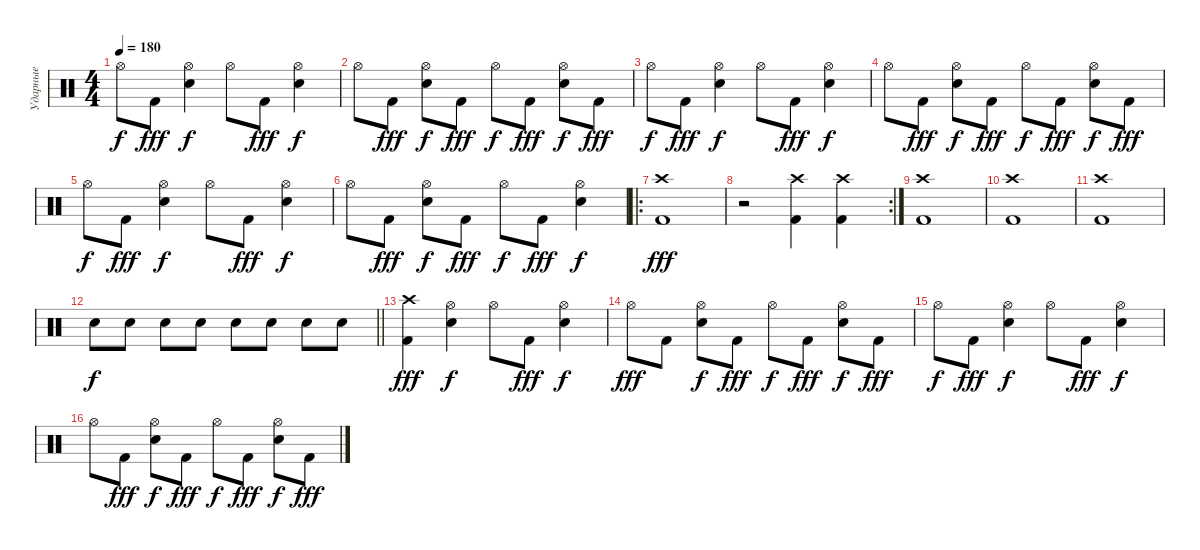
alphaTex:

\track ("Ударные" "Ударные") {instrument percussion}
\staff
\articulation defaults
\ts (4 4)
\tempo 180
\clef neutral
\ks c "Hi-Hat (open)".8{dy f} "Kick (hit) 2".8{dy fff}
("Snare (hit) 2" "Hi-Hat (open)").4{dy f} "Hi-Hat (open)".8 "Kick (hit) 2".8{dy fff} ("Snare (hit) 2" "Hi-Hat (open)").4{dy f} |
"Hi-Hat (open)".8 "Kick (hit) 2".8{dy fff} ("Snare (hit) 2" "Hi-Hat (open)").8{dy f} "Kick (hit) 2".8{dy fff} "Hi-Hat (open)".8{dy f} "Kick (hit) 2".8{dy fff} ("Snare (hit) 2" "Hi-Hat (open)").8{dy f} "Kick (hit) 2".8{dy fff} |
"Hi-Hat (open)".8{dy f} "Kick (hit) 2".8{dy fff} ("Snare (hit) 2" "Hi-Hat (open)").4{dy f} "Hi-Hat (open)".8 "Kick (hit) 2".8{dy fff} ("Snare (hit) 2" "Hi-Hat (open)").4{dy f} |
"Hi-Hat (open)".8 "Kick (hit) 2".8{dy fff} ("Snare (hit) 2" "Hi-Hat (open)").8{dy f} "Kick (hit) 2".8{dy fff} "Hi-Hat (open)".8{dy f} "Kick (hit) 2".8{dy fff} ("Snare (hit) 2" "Hi-Hat (open)").8{dy f} "Kick (hit) 2".8{dy fff} |
"Hi-Hat (open)".8{dy f} "Kick (hit) 2".8{dy fff} ("Snare (hit) 2" "Hi-Hat (open)").4{dy f} "Hi-Hat (open)".8 "Kick (hit) 2".8{dy fff} ("Snare (hit) 2" "Hi-Hat (open)").4{dy f} |
"Hi-Hat (open)".8 "Kick (hit) 2".8{dy fff} ("Snare (hit) 2" "Hi-Hat (open)").8{dy f} "Kick (hit) 2".8{dy fff} "Hi-Hat (open)".8{dy f} "Kick (hit) 2".8{dy fff} ("Snare (hit) 2" "Hi-Hat (open)").4{dy f} |
\ro
("Kick (hit) 2" "Crash high (hit)").1{dy fff} |
\rc 2
r.2 ("Kick (hit) 2" "Crash high (hit)").4 ("Kick (hit) 2" "Crash high (hit)").4 |
("Kick (hit) 2" "Crash high (hit)").1 |
("Kick (hit) 2" "Crash high (hit)").1 |
("Kick (hit) 2" "Crash high (hit)").1 |
\barLineRight lightlight "Snare (hit) 2".8{dy f} "Snare (hit) 2".8 "Snare (hit) 2".8 "Electric Snare (hit)".8 "Electric Snare (hit)".8 "Electric Snare (hit)".8 "Electric Snare (hit)".8 "Electric Snare (hit)".8
|
("Kick (hit) 2" "Crash high (hit)").4{dy fff} ("Snare (hit) 2" "Hi-Hat (open)").4{dy f} "Hi-Hat (open)".8 "Kick (hit) 2".8{dy fff} ("Snare (hit) 2" "Hi-Hat (open)").4{dy f} |
"Hi-Hat (open)".8{dy fff} "Kick (hit) 2".8 ("Snare (hit) 2" "Hi-Hat (open)").8{dy f} "Kick (hit) 2".8{dy fff} "Hi-Hat (open)".8{dy f} "Kick (hit) 2".8{dy fff} ("Snare (hit) 2" "Hi-Hat (open)").8{dy f} "Kick (hit) 2".8{dy fff} |
"Hi-Hat (open)".8{dy f} "Kick (hit) 2".8{dy fff} ("Snare (hit) 2" "Hi-Hat (open)").4{dy f} "Hi-Hat (open)".8 "Kick (hit) 2".8{dy fff} ("Snare (hit) 2" "Hi-Hat (open)").4{dy f} |
"Hi-Hat (open)".8 "Kick (hit) 2".8{dy fff} ("Snare (hit) 2" "Hi-Hat (open)").8{dy f} "Kick (hit) 2".8{dy fff} "Hi-Hat (open)".8{dy f} "Kick (hit) 2".8{dy fff} ("Snare (hit) 2" "Hi-Hat (open)").8{dy f} "Kick (hit) 2".8{dy fff}
